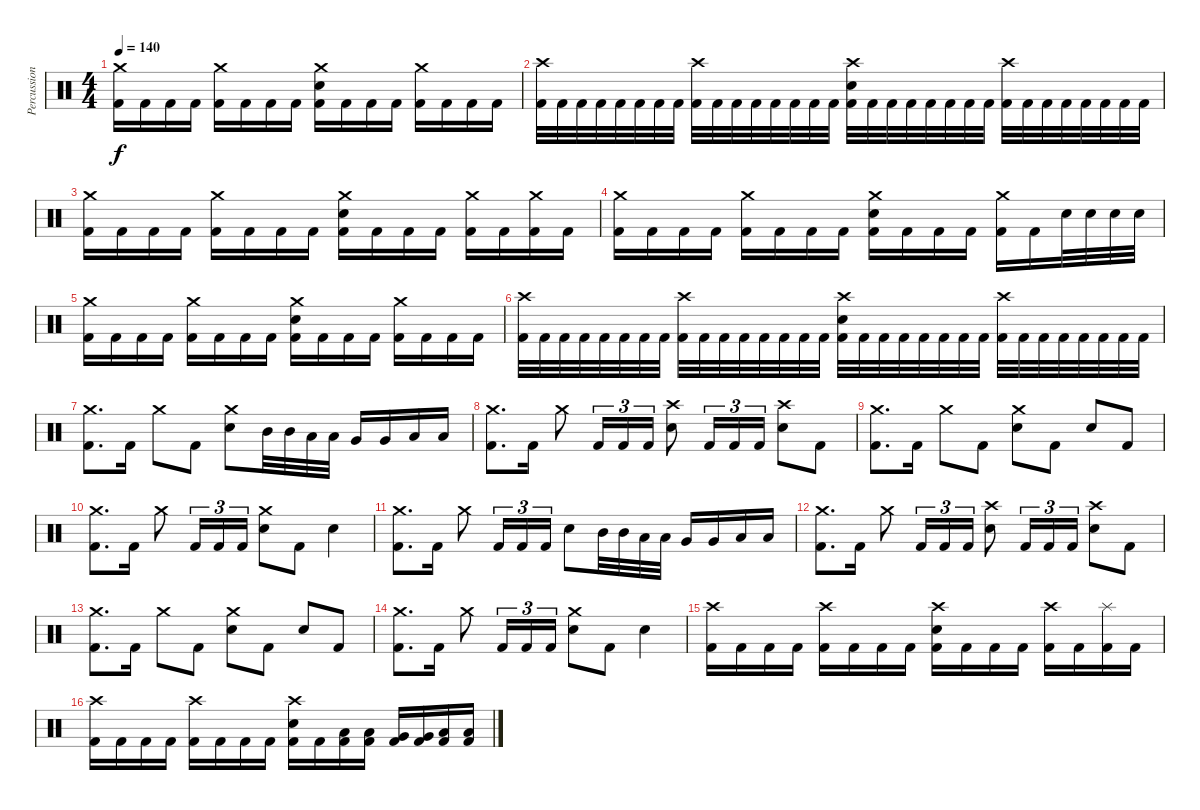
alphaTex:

\track ("Percussion" "Percussion") {instrument percussion}
\staff {score}
\articulation defaults
\ts (4 4)
\tempo 140
\clef neutral
\ks c
("Crash medium (hit)" "Kick (hit) 2").16{dy f} "Kick (hit) 2".16 "Kick (hit) 2".16 "Kick (hit) 2".16 ("Crash medium (hit)" "Kick (hit) 2").16 "Kick (hit) 2".16 "Kick (hit) 2".16 "Kick (hit) 2".16 ("Crash medium (hit)" "Electric Snare (hit)" "Kick (hit) 2").16 "Kick (hit) 2".16 "Kick (hit) 2".16 "Kick (hit) 2".16 ("Crash medium (hit)" "Kick (hit) 2").16 "Kick (hit) 2".16 "Kick (hit) 2".16 "Kick (hit) 2".16 |
("Crash high (hit)" "Kick (hit) 2").32 "Kick (hit) 2".32 "Kick (hit) 2".32 "Kick (hit) 2".32 "Kick (hit) 2".32 "Kick (hit) 2".32 "Kick (hit) 2".32 "Kick (hit) 2".32 ("Crash high (hit)" "Kick (hit) 2").32 "Kick (hit) 2".32 "Kick (hit) 2".32 "Kick (hit) 2".32 "Kick (hit) 2".32 "Kick (hit) 2".32 "Kick (hit) 2".32 "Kick (hit) 2".32 ("Crash high (hit)" "Electric Snare (hit)" "Kick (hit) 2").32 "Kick (hit) 2".32 "Kick (hit) 2".32 "Kick (hit) 2".32 "Kick (hit) 2".32 "Kick (hit) 2".32 "Kick (hit) 2".32 "Kick (hit) 2".32 ("Crash high (hit)" "Kick (hit) 2").32 "Kick (hit) 2".32 "Kick (hit) 2".32 "Kick (hit) 2".32 "Kick (hit) 2".32 "Kick (hit) 2".32 "Kick (hit) 2".32 "Kick (hit) 2".32 |
("Crash medium (hit)" "Kick (hit) 2").16 "Kick (hit) 2".16 "Kick (hit) 2".16 "Kick (hit) 2".16 ("Crash medium (hit)" "Kick (hit) 2").16 "Kick (hit) 2".16 "Kick (hit) 2".16 "Kick (hit) 2".16 ("Crash medium (hit)" "Electric Snare (hit)" "Kick (hit) 2").16 "Kick (hit) 2".16 "Kick (hit) 2".16 "Kick (hit) 2".16 ("Crash medium (hit)" "Kick (hit) 2").16 "Kick (hit) 2".16 ("Crash medium (hit)" "Kick (hit) 2").16 "Kick (hit) 2".16 |
("Crash medium (hit)" "Kick (hit) 2").16 "Kick (hit) 2".16 "Kick (hit) 2".16 "Kick (hit) 2".16 ("Crash medium (hit)" "Kick (hit) 2").16 "Kick (hit) 2".16 "Kick (hit) 2".16 "Kick (hit) 2".16 ("Crash medium (hit)" "Electric Snare (hit)" "Kick (hit) 2").16 "Kick (hit) 2".16 "Kick (hit) 2".16 "Kick (hit) 2".16 ("Crash medium (hit)" "Kick (hit) 2").16 "Kick (hit) 2".16 "Electric Snare (hit)".32 "Electric Snare (hit)".32 "Electric Snare (hit)".32 "Electric Snare (hit)".32 |
("Crash medium (hit)" "Kick (hit) 2").16 "Kick (hit) 2".16 "Kick (hit) 2".16 "Kick (hit) 2".16 ("Crash medium (hit)" "Kick (hit) 2").16 "Kick (hit) 2".16 "Kick (hit) 2".16 "Kick (hit) 2".16 ("Crash medium (hit)" "Electric Snare (hit)" "Kick (hit) 2").16 "Kick (hit) 2".16 "Kick (hit) 2".16 "Kick (hit) 2".16 ("Crash medium (hit)" "Kick (hit) 2").16 "Kick (hit) 2".16 "Kick (hit) 2".16 "Kick (hit) 2".16 |
("Crash high (hit)" "Kick (hit) 2").32 "Kick (hit) 2".32 "Kick (hit) 2".32 "Kick (hit) 2".32 "Kick (hit) 2".32 "Kick (hit) 2".32 "Kick (hit) 2".32 "Kick (hit) 2".32 ("Crash high (hit)" "Kick (hit) 2").32 "Kick (hit) 2".32 "Kick (hit) 2".32 "Kick (hit) 2".32 "Kick (hit) 2".32 "Kick (hit) 2".32 "Kick (hit) 2".32 "Kick (hit) 2".32 ("Crash high (hit)" "Electric Snare (hit)" "Kick (hit) 2").32 "Kick (hit) 2".32 "Kick (hit) 2".32 "Kick (hit) 2".32 "Kick (hit) 2".32 "Kick (hit) 2".32 "Kick (hit) 2".32 "Kick (hit) 2".32 ("Crash high (hit)" "Kick (hit) 2").32 "Kick (hit) 2".32 "Kick (hit) 2".32 "Kick (hit) 2".32 "Kick (hit) 2".32 "Kick (hit) 2".32 "Kick (hit) 2".32 "Kick (hit) 2".32 |
("Crash medium (hit)" "Kick (hit) 2").8{d} "Kick (hit) 2".16 "Crash medium (hit)".8 "Kick (hit) 2".8 ("Crash medium (hit)" "Electric Snare (hit)").8 "Mid Tom (hit)".32 "Mid Tom (hit)".32 "Low Tom (hit)".32 "Low Tom (hit)".32 "Very Low Tom (hit)".16 "Very Low Tom (hit)".16 "Low Floor Tom (hit)".16 "Low Floor Tom (hit)".16 |
("Crash medium (hit)" "Kick (hit) 2").8{d} "Kick (hit) 2".16 "Crash medium (hit)".8 "Kick (hit) 2".16{tu (3 2)} "Kick (hit) 2".16{tu (3 2)} "Kick (hit) 2".16{tu (3 2)} ("Crash high (hit)" "Electric Snare (hit)").8 "Kick (hit) 2".16{tu (3 2)} "Kick (hit) 2".16{tu (3 2)} "Kick (hit) 2".16{tu (3 2)} ("Crash high (hit)" "Electric Snare (hit)").8 "Kick (hit) 2".8 |
("Crash medium (hit)" "Kick (hit) 2").8{d} "Kick (hit) 2".16 "Crash medium (hit)".8 "Kick (hit) 2".8 ("Crash medium (hit)" "Electric Snare (hit)").8 "Kick (hit) 2".8 "Electric Snare (hit)".8 "Kick (hit) 2".8 |
("Crash medium (hit)" "Kick (hit) 2").8{d} "Kick (hit) 2".16 "Crash medium (hit)".8 "Kick (hit) 2".16{tu (3 2)} "Kick (hit) 2".16{tu (3 2)} "Kick (hit) 2".16{tu (3 2)} ("Crash medium (hit)" "Electric Snare (hit)").8 "Kick (hit) 2".8 "Electric Snare (hit)".4 |
("Crash medium (hit)" "Kick (hit) 2").8{d} "Kick (hit) 2".16 "Crash medium (hit)".8 "Kick (hit) 2".16{tu (3 2)} "Kick (hit) 2".16{tu (3 2)} "Kick (hit) 2".16{tu (3 2)} "Electric Snare (hit)".8 "Mid Tom (hit)".32 "Mid Tom (hit)".32 "Low Tom (hit)".32 "Low Tom (hit)".32 "Very Low Tom (hit)".16 "Very Low Tom (hit)".16 "Low Floor Tom (hit)".16 "Low Floor Tom (hit)".16 |
("Crash medium (hit)" "Kick (hit) 2").8{d} "Kick (hit) 2".16 "Crash medium (hit)".8 "Kick (hit) 2".16{tu (3 2)} "Kick (hit) 2".16{tu (3 2)} "Kick (hit) 2".16{tu (3 2)} ("Crash high (hit)" "Electric Snare (hit)").8 "Kick (hit) 2".16{tu (3 2)} "Kick (hit) 2".16{tu (3 2)} "Kick (hit) 2".16{tu (3 2)} ("Crash high (hit)" "Electric Snare (hit)").8 "Kick (hit) 2".8 |
("Crash medium (hit)" "Kick (hit) 2").8{d} "Kick (hit) 2".16 "Crash medium (hit)".8 "Kick (hit) 2".8 ("Crash medium (hit)" "Electric Snare (hit)").8 "Kick (hit) 2".8 "Electric Snare (hit)".8 "Kick (hit) 2".8 |
("Crash medium (hit)" "Kick (hit) 2").8{d} "Kick (hit) 2".16 "Crash medium (hit)".8 "Kick (hit) 2".16{tu (3 2)} "Kick (hit) 2".16{tu (3 2)} "Kick (hit) 2".16{tu (3 2)} ("Crash medium (hit)" "Electric Snare (hit)").8 "Kick (hit) 2".8 "Electric Snare (hit)".4 |
("Crash high (hit)" "Kick (hit) 2").16 "Kick (hit) 2".16 "Kick (hit) 2".16 "Kick (hit) 2".16 ("Crash high (hit)" "Kick (hit) 2").16 "Kick (hit) 2".16 "Kick (hit) 2".16 "Kick (hit) 2".16 ("Crash high (hit)" "Electric Snare (hit)" "Kick (hit) 2").16 "Kick (hit) 2".16 "Kick (hit) 2".16 "Kick (hit) 2".16 ("Crash high (hit)" "Kick (hit) 2").16 "Kick (hit) 2".16 ("Splash (hit)" "Kick (hit) 2").16 "Kick (hit) 2".16 |
("Crash high (hit)" "Kick (hit) 2").16 "Kick (hit) 2".16 "Kick (hit) 2".16 "Kick (hit) 2".16 ("Crash high (hit)" "Kick (hit) 2").16 "Kick (hit) 2".16 "Kick (hit) 2".16 "Kick (hit) 2".16 ("Crash high (hit)" "Electric Snare (hit)" "Kick (hit) 2").16 "Kick (hit) 2".16 ("Low Tom (hit)" "Kick (hit) 2").16 ("Low Tom (hit)" "Kick (hit) 2").16 ("Very Low Tom (hit)" "Kick (hit) 2").16 ("Very Low Tom (hit)" "Kick (hit) 2").16 ("Low Floor Tom (hit)" "Kick (hit) 2").16 ("Low Floor Tom (hit)" "Kick (hit) 2").16
